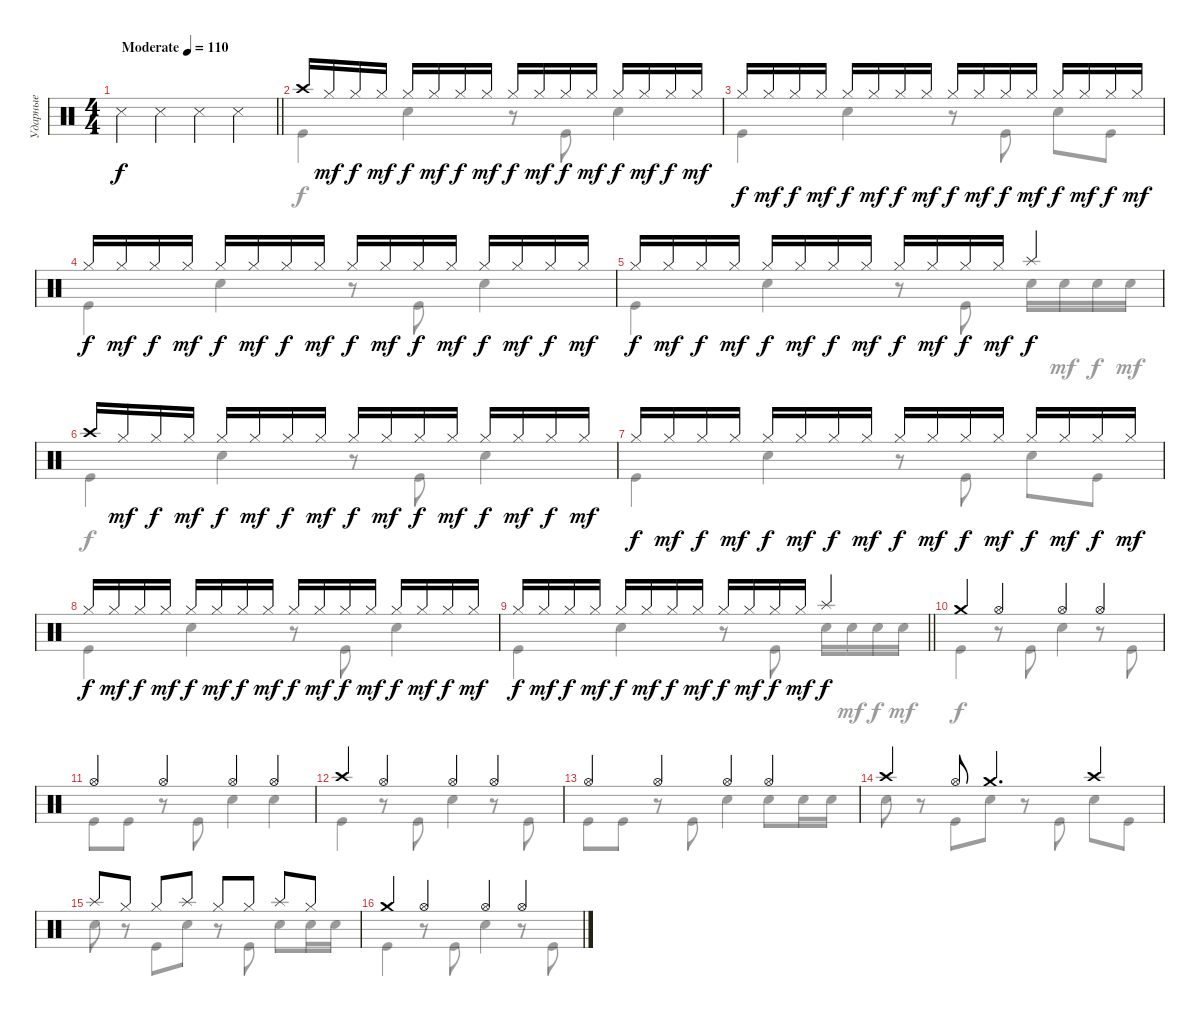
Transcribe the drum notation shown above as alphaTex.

\track ("Ударные" "Ударные") {instrument percussion}
\staff {score}
\articulation defaults
\voice
\ts (4 4)
\tempo (110 "Moderate")
\clef neutral
\barLineRight lightlight
\ks c "Snare (side stick) 3".4{dy f} "Snare (side stick) 3".4 "Snare (side stick) 3".4 "Snare (side stick) 3".4
|
"Crash high (hit)".16 "Hi-Hat (closed)".16{dy mf} "Hi-Hat (closed)".16{dy f} "Hi-Hat (closed)".16{dy mf} "Hi-Hat (closed)".16{dy f} "Hi-Hat (closed)".16{dy mf} "Hi-Hat (closed)".16{dy f} "Hi-Hat (closed)".16{dy mf} "Hi-Hat (closed)".16{dy f} "Hi-Hat (closed)".16{dy mf} "Hi-Hat (closed)".16{dy f} "Hi-Hat (closed)".16{dy mf} "Hi-Hat (closed)".16{dy f} "Hi-Hat (closed)".16{dy mf} "Hi-Hat (closed)".16{dy f} "Hi-Hat (closed)".16{dy mf} |
"Hi-Hat (closed)".16{dy f} "Hi-Hat (closed)".16{dy mf} "Hi-Hat (closed)".16{dy f} "Hi-Hat (closed)".16{dy mf} "Hi-Hat (closed)".16{dy f} "Hi-Hat (closed)".16{dy mf} "Hi-Hat (closed)".16{dy f} "Hi-Hat (closed)".16{dy mf} "Hi-Hat (closed)".16{dy f} "Hi-Hat (closed)".16{dy mf} "Hi-Hat (closed)".16{dy f} "Hi-Hat (closed)".16{dy mf} "Hi-Hat (closed)".16{dy f} "Hi-Hat (closed)".16{dy mf} "Hi-Hat (closed)".16{dy f} "Hi-Hat (closed)".16{dy mf} |
"Hi-Hat (closed)".16{dy f} "Hi-Hat (closed)".16{dy mf} "Hi-Hat (closed)".16{dy f} "Hi-Hat (closed)".16{dy mf} "Hi-Hat (closed)".16{dy f} "Hi-Hat (closed)".16{dy mf} "Hi-Hat (closed)".16{dy f} "Hi-Hat (closed)".16{dy mf} "Hi-Hat (closed)".16{dy f} "Hi-Hat (closed)".16{dy mf} "Hi-Hat (closed)".16{dy f} "Hi-Hat (closed)".16{dy mf} "Hi-Hat (closed)".16{dy f} "Hi-Hat (closed)".16{dy mf} "Hi-Hat (closed)".16{dy f} "Hi-Hat (closed)".16{dy mf} |
"Hi-Hat (closed)".16{dy f} "Hi-Hat (closed)".16{dy mf} "Hi-Hat (closed)".16{dy f} "Hi-Hat (closed)".16{dy mf} "Hi-Hat (closed)".16{dy f} "Hi-Hat (closed)".16{dy mf} "Hi-Hat (closed)".16{dy f} "Hi-Hat (closed)".16{dy mf} "Hi-Hat (closed)".16{dy f} "Hi-Hat (closed)".16{dy mf} "Hi-Hat (closed)".16{dy f} "Hi-Hat (closed)".16{dy mf} "Splash (hit)".4{dy f} |
"Crash high (hit)".16 "Hi-Hat (closed)".16{dy mf} "Hi-Hat (closed)".16{dy f} "Hi-Hat (closed)".16{dy mf} "Hi-Hat (closed)".16{dy f} "Hi-Hat (closed)".16{dy mf} "Hi-Hat (closed)".16{dy f} "Hi-Hat (closed)".16{dy mf} "Hi-Hat (closed)".16{dy f} "Hi-Hat (closed)".16{dy mf} "Hi-Hat (closed)".16{dy f} "Hi-Hat (closed)".16{dy mf} "Hi-Hat (closed)".16{dy f} "Hi-Hat (closed)".16{dy mf} "Hi-Hat (closed)".16{dy f} "Hi-Hat (closed)".16{dy mf} |
"Hi-Hat (closed)".16{dy f} "Hi-Hat (closed)".16{dy mf} "Hi-Hat (closed)".16{dy f} "Hi-Hat (closed)".16{dy mf} "Hi-Hat (closed)".16{dy f} "Hi-Hat (closed)".16{dy mf} "Hi-Hat (closed)".16{dy f} "Hi-Hat (closed)".16{dy mf} "Hi-Hat (closed)".16{dy f} "Hi-Hat (closed)".16{dy mf} "Hi-Hat (closed)".16{dy f} "Hi-Hat (closed)".16{dy mf} "Hi-Hat (closed)".16{dy f} "Hi-Hat (closed)".16{dy mf} "Hi-Hat (closed)".16{dy f} "Hi-Hat (closed)".16{dy mf} |
"Hi-Hat (closed)".16{dy f} "Hi-Hat (closed)".16{dy mf} "Hi-Hat (closed)".16{dy f} "Hi-Hat (closed)".16{dy mf} "Hi-Hat (closed)".16{dy f} "Hi-Hat (closed)".16{dy mf} "Hi-Hat (closed)".16{dy f} "Hi-Hat (closed)".16{dy mf} "Hi-Hat (closed)".16{dy f} "Hi-Hat (closed)".16{dy mf} "Hi-Hat (closed)".16{dy f} "Hi-Hat (closed)".16{dy mf} "Hi-Hat (closed)".16{dy f} "Hi-Hat (closed)".16{dy mf} "Hi-Hat (closed)".16{dy f} "Hi-Hat (closed)".16{dy mf} |
\barLineRight lightlight "Hi-Hat (closed)".16{dy f} "Hi-Hat (closed)".16{dy mf} "Hi-Hat (closed)".16{dy f} "Hi-Hat (closed)".16{dy mf} "Hi-Hat (closed)".16{dy f} "Hi-Hat (closed)".16{dy mf} "Hi-Hat (closed)".16{dy f} "Hi-Hat (closed)".16{dy mf} "Hi-Hat (closed)".16{dy f} "Hi-Hat (closed)".16{dy mf} "Hi-Hat (closed)".16{dy f} "Hi-Hat (closed)".16{dy mf} "Splash (hit)".4{dy f}
|
"Crash medium (hit)".4 "Hi-Hat (open)".4 "Hi-Hat (open)".4 "Hi-Hat (open)".4 |
"Hi-Hat (open)".4 "Hi-Hat (open)".4 "Hi-Hat (open)".4 "Hi-Hat (open)".4 |
"Crash high (hit)".4 "Hi-Hat (open)".4 "Hi-Hat (open)".4 "Hi-Hat (open)".4 |
"Hi-Hat (open)".4 "Hi-Hat (open)".4 "Hi-Hat (open)".4 "Hi-Hat (open)".4 |
"Crash high (hit)".4 "Hi-Hat (open)".8 "Crash medium (hit)".4{d} "Crash high (hit)".4 |
"Splash (hit)".8 "Hi-Hat (closed)".8 "Hi-Hat (closed)".8 "Splash (hit)".8 "Hi-Hat (closed)".8 "Hi-Hat (closed)".8 "Splash (hit)".8 "Hi-Hat (closed)".8 |
"Crash medium (hit)".4 "Hi-Hat (open)".4 "Hi-Hat (open)".4 "Hi-Hat (open)".4
\voice
\clef neutral
\ottava regular
\simile none
\barLineRight lightlight
\ks c
|
"Kick (hit)".4 "Snare (hit) 2".4 r.8 "Kick (hit)".8 "Snare (hit) 2".4 |
"Kick (hit)".4 "Snare (hit) 2".4 r.8 "Kick (hit)".8 "Snare (hit) 2".8 "Kick (hit)".8 |
"Kick (hit)".4 "Snare (hit) 2".4 r.8 "Kick (hit)".8 "Snare (hit) 2".4 |
"Kick (hit)".4 "Snare (hit) 2".4 r.8 "Kick (hit)".8 "Snare (hit) 2".16 "Snare (hit) 2".16{dy mf} "Snare (hit) 2".16{dy f} "Snare (hit) 2".16{dy mf} |
"Kick (hit)".4{dy f} "Snare (hit) 2".4 r.8 "Kick (hit)".8 "Snare (hit) 2".4 |
"Kick (hit)".4 "Snare (hit) 2".4 r.8 "Kick (hit)".8 "Snare (hit) 2".8 "Kick (hit)".8 |
"Kick (hit)".4 "Snare (hit) 2".4 r.8 "Kick (hit)".8 "Snare (hit) 2".4 |
\barLineRight lightlight "Kick (hit)".4 "Snare (hit) 2".4
r.8 "Kick (hit)".8 "Snare (hit) 2".16 "Snare (hit) 2".16{dy mf} "Snare (hit) 2".16{dy f} "Snare (hit) 2".16{dy mf} |
"Kick (hit)".4{dy f} r.8 "Kick (hit)".8 "Snare (hit) 2".4 r.8 "Kick (hit)".8 |
"Kick (hit)".8 "Kick (hit)".8 r.8 "Kick (hit)".8 "Snare (hit) 2".4 "Snare (hit) 2".4 |
"Kick (hit)".4 r.8 "Kick (hit)".8 "Snare (hit) 2".4 r.8 "Kick (hit)".8 |
"Kick (hit)".8 "Kick (hit)".8 r.8 "Kick (hit)".8 "Snare (hit) 2".4 "Snare (hit) 2".8 "Snare (hit) 2".16 "Snare (hit) 2".16 |
"Snare (hit) 2".8 r.8 "Kick (hit)".8 "Snare (hit) 2".8 r.8 "Kick (hit)".8 "Snare (hit) 2".8 "Kick (hit)".8 |
"Snare (hit) 2".8 r.8 "Kick (hit)".8 "Snare (hit) 2".8 r.8 "Kick (hit)".8 "Snare (hit) 2".8 "Snare (hit) 2".16 "Snare (hit) 2".16 |
"Kick (hit)".4 r.8 "Kick (hit)".8 "Snare (hit) 2".4 r.8 "Kick (hit)".8
